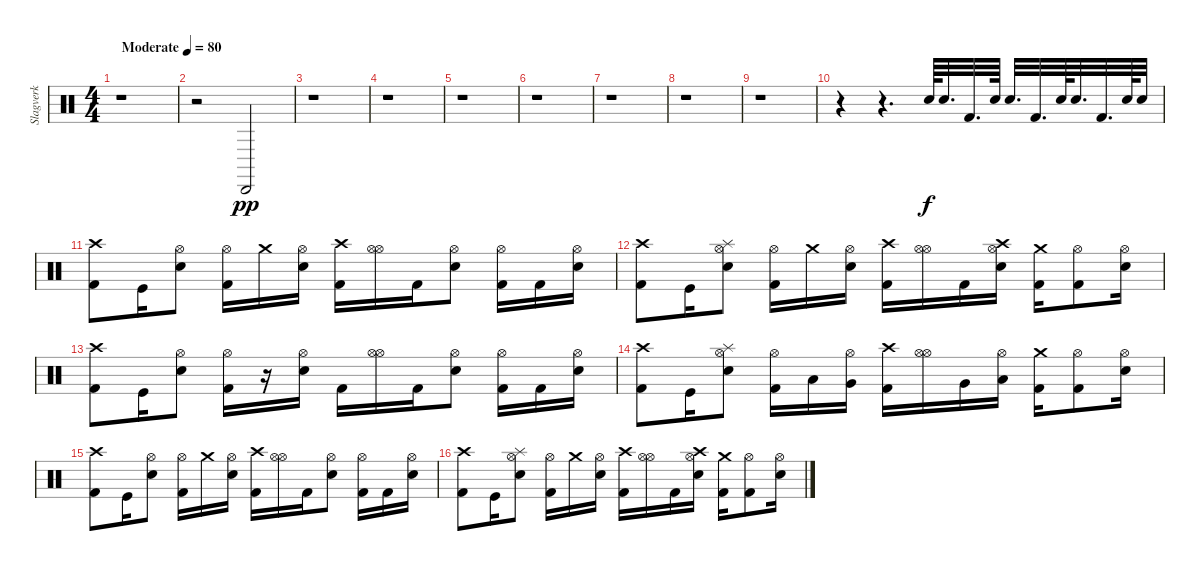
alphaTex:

\track ("Slagverk" "Slagverk") {instrument percussion}
\staff
\articulation defaults
\ts (4 4)
\tempo (80 "Moderate")
\clef neutral
\ks c
r.1{dy pp} |
r.2 "Cabasa (hit)".2 |
r.1 |
r.1 |
r.1 |
r.1 |
r.1 |
r.1 |
r.1 |
r.4 r.4{d} "Snare (hit) 2".64{dy f} "Snare (hit) 2".32{d} "Kick (hit) 2".32{d} "Snare (hit) 2".64 "Snare (hit) 2".32{d} "Kick (hit) 2".32{d} "Snare (hit) 2".64 "Snare (hit) 2".32{d} "Kick (hit) 2".32{d} "Snare (hit) 2".64 "Snare (hit) 2".32 |
("Crash high (hit)" "Kick (hit) 2").8 "Kick (hit)".16 ("Hi-Hat (open)" "Snare (hit) 2").8 ("Hi-Hat (open)" "Kick (hit) 2").16 "Crash medium (hit)".16 ("Hi-Hat (open)" "Snare (hit) 2").16 ("Kick (hit) 2" "Crash high (hit)").16 ("Hi-Hat (open)" "Hi-Hat (open)").16 "Kick (hit) 2".16 ("Hi-Hat (open)" "Snare (hit) 2").8 ("Hi-Hat (open)" "Kick (hit) 2").16 "Kick (hit) 2".16 ("Hi-Hat (open)" "Snare (hit) 2").16 |
("Crash high (hit)" "Kick (hit) 2").8 "Kick (hit)".16 ("Hi-Hat (open)" "Snare (hit) 2" "Splash (hit)").8 ("Hi-Hat (open)" "Kick (hit) 2").16 "Crash medium (hit)".16 ("Hi-Hat (open)" "Snare (hit) 2").16 ("Kick (hit) 2" "Crash high (hit)").16 ("Hi-Hat (open)" "Hi-Hat (open)").16 "Kick (hit) 2".16 ("Hi-Hat (open)" "Snare (hit) 2" "Crash high (hit)").16 ("Kick (hit) 2" "Crash medium (hit)").16 ("Hi-Hat (open)" "Kick (hit) 2").8 ("Hi-Hat (open)" "Snare (hit) 2").16 |
("Crash high (hit)" "Kick (hit) 2").8 "Kick (hit)".16 ("Hi-Hat (open)" "Snare (hit) 2").8 ("Hi-Hat (open)" "Kick (hit) 2").16 r.16 ("Hi-Hat (open)" "Snare (hit) 2").16 "Kick (hit) 2".16 ("Hi-Hat (open)" "Hi-Hat (open)").16 "Kick (hit) 2".16 ("Hi-Hat (open)" "Snare (hit) 2").8 ("Hi-Hat (open)" "Kick (hit) 2").16 "Kick (hit) 2".16 ("Hi-Hat (open)" "Snare (hit) 2").16 |
("Crash high (hit)" "Kick (hit) 2").8 "Kick (hit)".16 ("Hi-Hat (open)" "Snare (hit) 2" "Splash (hit)").8 ("Hi-Hat (open)" "Kick (hit) 2").16 "Low Tom (hit)".16 ("Hi-Hat (open)" "Very Low Tom (hit)").16 ("Kick (hit) 2" "Crash high (hit)").16 ("Hi-Hat (open)" "Hi-Hat (open)").16 "Very Low Tom (hit)".16 ("Hi-Hat (open)" "Low Floor Tom (hit)").16 ("Kick (hit) 2" "Crash medium (hit)").16 ("Hi-Hat (open)" "Kick (hit) 2").8 ("Hi-Hat (open)" "Snare (hit) 2").16 |
("Crash high (hit)" "Kick (hit) 2").8 "Kick (hit)".16 ("Hi-Hat (open)" "Snare (hit) 2").8 ("Hi-Hat (open)" "Kick (hit) 2").16 "Crash medium (hit)".16 ("Hi-Hat (open)" "Snare (hit) 2").16 ("Kick (hit) 2" "Crash high (hit)").16 ("Hi-Hat (open)" "Hi-Hat (open)").16 "Kick (hit) 2".16 ("Hi-Hat (open)" "Snare (hit) 2").8 ("Hi-Hat (open)" "Kick (hit) 2").16 "Kick (hit) 2".16 ("Hi-Hat (open)" "Snare (hit) 2").16 |
("Crash high (hit)" "Kick (hit) 2").8 "Kick (hit)".16 ("Hi-Hat (open)" "Snare (hit) 2" "Splash (hit)").8 ("Hi-Hat (open)" "Kick (hit) 2").16 "Crash medium (hit)".16 ("Hi-Hat (open)" "Snare (hit) 2").16 ("Kick (hit) 2" "Crash high (hit)").16 ("Hi-Hat (open)" "Hi-Hat (open)").16 "Kick (hit) 2".16 ("Hi-Hat (open)" "Snare (hit) 2" "Crash high (hit)").16 ("Kick (hit) 2" "Crash medium (hit)").16 ("Hi-Hat (open)" "Kick (hit) 2").8 ("Hi-Hat (open)" "Snare (hit) 2").16
